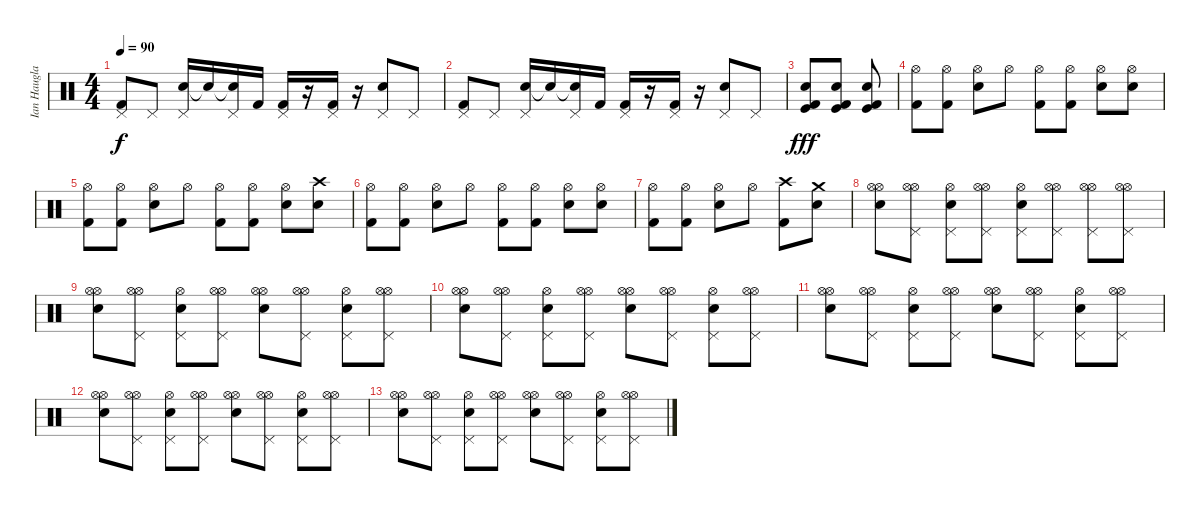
\track ("Ian Haugland" "Ian Haugla") {instrument percussion}
\staff {score}
\articulation defaults
\ts (4 4)
\tempo 90
\clef neutral
\ks c
("Kick (hit) 2" "Pedal Hi-Hat (hit)").8{dy f} "Pedal Hi-Hat (hit)".8 ("Electric Snare (hit)" "Pedal Hi-Hat (hit)").16 "Snare (hit)"{t}.16 ("Snare (hit)"{t} "Pedal Hi-Hat (hit)").16 "Kick (hit) 2".16 ("Kick (hit) 2" "Pedal Hi-Hat (hit)").16 r.16 ("Kick (hit) 2" "Pedal Hi-Hat (hit)").16 r.16 ("Electric Snare (hit)" "Pedal Hi-Hat (hit)").8 "Pedal Hi-Hat (hit)".8 |
("Kick (hit) 2" "Pedal Hi-Hat (hit)").8 "Pedal Hi-Hat (hit)".8 ("Electric Snare (hit)" "Pedal Hi-Hat (hit)").16 "Snare (hit)"{t}.16 ("Snare (hit)"{t} "Pedal Hi-Hat (hit)").16 "Kick (hit) 2".16 ("Kick (hit) 2" "Pedal Hi-Hat (hit)").16 r.16 ("Kick (hit) 2" "Pedal Hi-Hat (hit)").16 r.16 ("Electric Snare (hit)" "Pedal Hi-Hat (hit)").8 "Pedal Hi-Hat (hit)".8 |
("Snare (hit) 2" "Kick (hit) 2" "Kick (hit)").8{dy fff} ("Snare (hit) 2" "Kick (hit) 2" "Kick (hit)").8 ("Snare (hit) 2" "Kick (hit) 2" "Kick (hit)").8 |
("Hi-Hat (open)" "Kick (hit) 2").8 ("Hi-Hat (open)" "Kick (hit) 2").8 ("Hi-Hat (open)" "Electric Snare (hit)").8 "Hi-Hat (open)".8 ("Hi-Hat (open)" "Kick (hit) 2").8 ("Hi-Hat (open)" "Kick (hit) 2").8 ("Hi-Hat (open)" "Electric Snare (hit)").8 ("Snare (hit) 2" "Hi-Hat (open)").8 |
("Hi-Hat (open)" "Kick (hit) 2").8 ("Hi-Hat (open)" "Kick (hit) 2").8 ("Hi-Hat (open)" "Electric Snare (hit)").8 "Hi-Hat (open)".8 ("Hi-Hat (open)" "Kick (hit) 2").8 ("Hi-Hat (open)" "Kick (hit) 2").8 ("Hi-Hat (open)" "Electric Snare (hit)").8 ("Electric Snare (hit)" "Crash high (hit)").8 |
("Hi-Hat (open)" "Kick (hit) 2").8 ("Hi-Hat (open)" "Kick (hit) 2").8 ("Hi-Hat (open)" "Electric Snare (hit)").8 "Hi-Hat (open)".8 ("Hi-Hat (open)" "Kick (hit) 2").8 ("Hi-Hat (open)" "Kick (hit) 2").8 ("Hi-Hat (open)" "Electric Snare (hit)").8 ("Electric Snare (hit)" "Hi-Hat (open)").8 |
("Hi-Hat (open)" "Kick (hit) 2").8 ("Hi-Hat (open)" "Kick (hit) 2").8 ("Hi-Hat (open)" "Electric Snare (hit)").8 "Hi-Hat (open)".8 ("Crash high (hit)" "Kick (hit) 2").8 ("Crash medium (hit)" "Snare (hit) 2").8 |
("Electric Snare (hit)" "Hi-Hat (open)" "Hi-Hat (open)").8 ("Pedal Hi-Hat (hit)" "Hi-Hat (open)" "Hi-Hat (open)").8 ("Pedal Hi-Hat (hit)" "Electric Snare (hit)" "Hi-Hat (open)").8 ("Pedal Hi-Hat (hit)" "Hi-Hat (open)" "Hi-Hat (open)").8 ("Pedal Hi-Hat (hit)" "Electric Snare (hit)" "Hi-Hat (open)").8 ("Pedal Hi-Hat (hit)" "Hi-Hat (open)" "Hi-Hat (open)").8 ("Pedal Hi-Hat (hit)" "Hi-Hat (open)" "Hi-Hat (open)").8 ("Pedal Hi-Hat (hit)" "Hi-Hat (open)" "Hi-Hat (open)").8 |
("Electric Snare (hit)" "Hi-Hat (open)" "Hi-Hat (open)").8 ("Pedal Hi-Hat (hit)" "Hi-Hat (open)" "Hi-Hat (open)").8 ("Pedal Hi-Hat (hit)" "Electric Snare (hit)" "Hi-Hat (open)").8 ("Pedal Hi-Hat (hit)" "Hi-Hat (open)" "Hi-Hat (open)").8 ("Electric Snare (hit)" "Hi-Hat (open)" "Hi-Hat (open)").8 ("Pedal Hi-Hat (hit)" "Hi-Hat (open)" "Hi-Hat (open)").8 ("Pedal Hi-Hat (hit)" "Electric Snare (hit)" "Hi-Hat (open)").8 ("Pedal Hi-Hat (hit)" "Hi-Hat (open)" "Hi-Hat (open)").8 |
("Electric Snare (hit)" "Hi-Hat (open)" "Hi-Hat (open)").8 ("Pedal Hi-Hat (hit)" "Hi-Hat (open)" "Hi-Hat (open)").8 ("Pedal Hi-Hat (hit)" "Electric Snare (hit)" "Hi-Hat (open)").8 ("Pedal Hi-Hat (hit)" "Hi-Hat (open)" "Hi-Hat (open)").8 ("Electric Snare (hit)" "Hi-Hat (open)" "Hi-Hat (open)").8 ("Pedal Hi-Hat (hit)" "Hi-Hat (open)" "Hi-Hat (open)").8 ("Pedal Hi-Hat (hit)" "Electric Snare (hit)" "Hi-Hat (open)").8 ("Pedal Hi-Hat (hit)" "Hi-Hat (open)" "Hi-Hat (open)").8 |
("Electric Snare (hit)" "Hi-Hat (open)" "Hi-Hat (open)").8 ("Pedal Hi-Hat (hit)" "Hi-Hat (open)" "Hi-Hat (open)").8 ("Pedal Hi-Hat (hit)" "Electric Snare (hit)" "Hi-Hat (open)").8 ("Pedal Hi-Hat (hit)" "Hi-Hat (open)" "Hi-Hat (open)").8 ("Electric Snare (hit)" "Hi-Hat (open)" "Hi-Hat (open)").8 ("Pedal Hi-Hat (hit)" "Hi-Hat (open)" "Hi-Hat (open)").8 ("Pedal Hi-Hat (hit)" "Electric Snare (hit)" "Hi-Hat (open)").8 ("Pedal Hi-Hat (hit)" "Hi-Hat (open)" "Hi-Hat (open)").8 |
("Electric Snare (hit)" "Hi-Hat (open)" "Hi-Hat (open)").8 ("Pedal Hi-Hat (hit)" "Hi-Hat (open)" "Hi-Hat (open)").8 ("Pedal Hi-Hat (hit)" "Electric Snare (hit)" "Hi-Hat (open)").8 ("Pedal Hi-Hat (hit)" "Hi-Hat (open)" "Hi-Hat (open)").8 ("Electric Snare (hit)" "Hi-Hat (open)" "Hi-Hat (open)").8 ("Pedal Hi-Hat (hit)" "Hi-Hat (open)" "Hi-Hat (open)").8 ("Pedal Hi-Hat (hit)" "Electric Snare (hit)" "Hi-Hat (open)").8 ("Pedal Hi-Hat (hit)" "Hi-Hat (open)" "Hi-Hat (open)").8 |
("Electric Snare (hit)" "Hi-Hat (open)" "Hi-Hat (open)").8 ("Pedal Hi-Hat (hit)" "Hi-Hat (open)" "Hi-Hat (open)").8 ("Pedal Hi-Hat (hit)" "Electric Snare (hit)" "Hi-Hat (open)").8 ("Pedal Hi-Hat (hit)" "Hi-Hat (open)" "Hi-Hat (open)").8 ("Electric Snare (hit)" "Hi-Hat (open)" "Hi-Hat (open)").8 ("Pedal Hi-Hat (hit)" "Hi-Hat (open)" "Hi-Hat (open)").8 ("Pedal Hi-Hat (hit)" "Electric Snare (hit)" "Hi-Hat (open)").8 ("Pedal Hi-Hat (hit)" "Hi-Hat (open)" "Hi-Hat (open)").8
